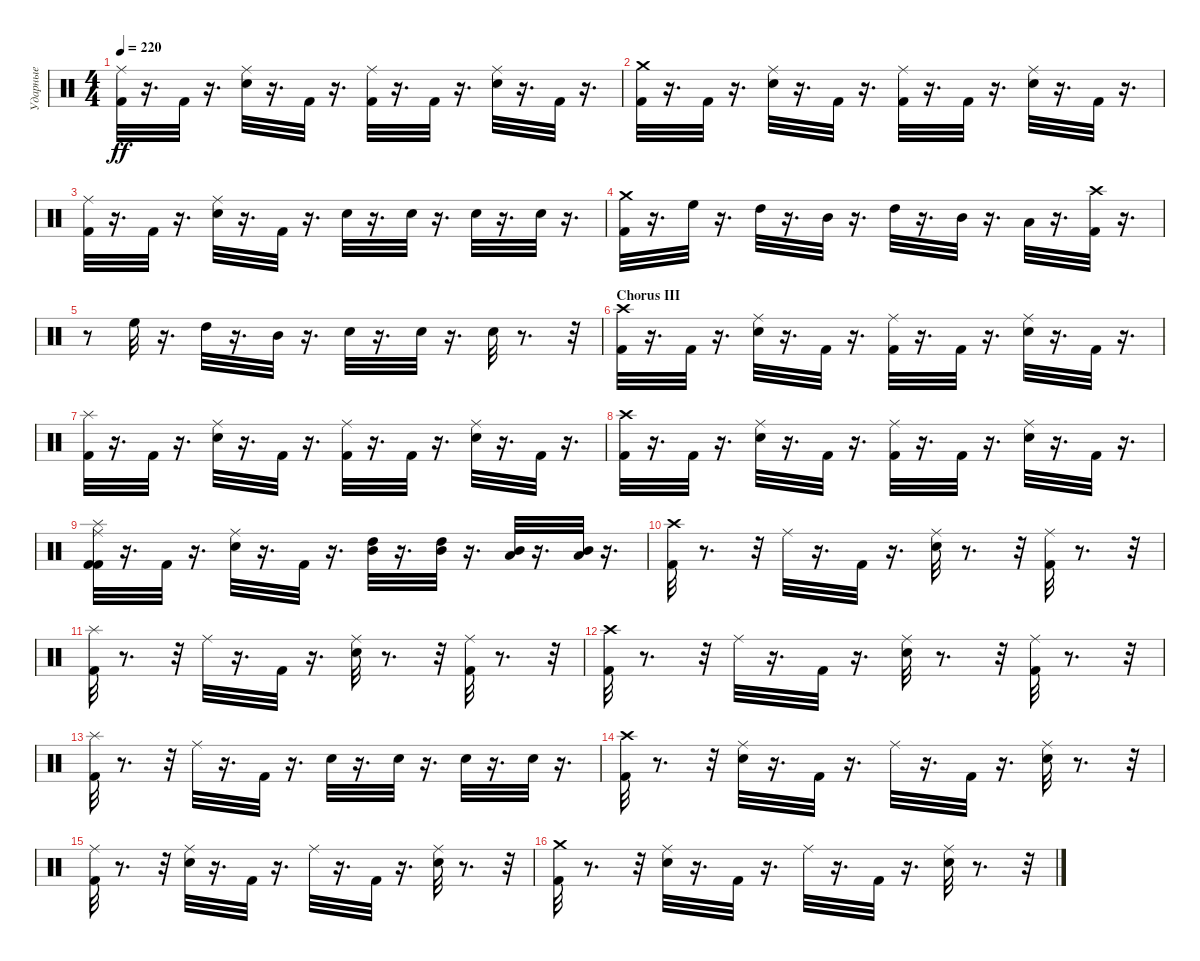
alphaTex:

\track ("Ударные" "Ударные") {instrument percussion}
\staff {score}
\articulation defaults
\ts (4 4)
\tempo 220
\clef neutral
\ks c
("Ride (middle)" "Kick (hit) 2").32{dy ff} r.16{d} "Kick (hit) 2".32 r.16{d} ("Ride (middle)" "Snare (hit) 2").32 r.16{d} "Kick (hit) 2".32 r.16{d} ("Ride (middle)" "Kick (hit) 2").32 r.16{d} "Kick (hit) 2".32 r.16{d} ("Ride (middle)" "Snare (hit) 2").32 r.16{d} "Kick (hit) 2".32 r.16{d} |
("Crash medium (hit)" "Kick (hit) 2").32 r.16{d} "Kick (hit) 2".32 r.16{d} ("Ride (middle)" "Snare (hit) 2").32 r.16{d} "Kick (hit) 2".32 r.16{d} ("Ride (middle)" "Kick (hit) 2").32 r.16{d} "Kick (hit) 2".32 r.16{d} ("Ride (middle)" "Snare (hit) 2").32 r.16{d} "Kick (hit) 2".32 r.16{d} |
("Ride (middle)" "Kick (hit) 2").32 r.16{d} "Kick (hit) 2".32 r.16{d} ("Ride (middle)" "Snare (hit) 2").32 r.16{d} "Kick (hit) 2".32 r.16{d} "Snare (hit) 2".32 r.16{d} "Snare (hit) 2".32 r.16{d} "Snare (hit) 2".32 r.16{d} "Snare (hit) 2".32 r.16{d} |
("Crash medium (hit)" "Kick (hit) 2").32 r.16{d} "High Floor Tom (hit)".32 r.16{d} "High Tom (hit)".32 r.16{d} "Mid Tom (hit)".32 r.16{d} "High Tom (hit)".32 r.16{d} "Mid Tom (hit)".32 r.16{d} "Low Tom (hit)".32 r.16{d} ("Kick (hit) 2" "Crash high (hit)").32 r.16{d} |
r.8 "High Floor Tom (hit)".32 r.16{d} "High Tom (hit)".32 r.16{d} "Mid Tom (hit)".32 r.16{d} "Snare (hit) 2".32 r.16{d} "Snare (hit) 2".32 r.16{d} "Snare (hit) 2".32 r.8{d} r.32 |
\section ("" "Chorus III")
("Crash high (hit)" "Kick (hit) 2").32 r.16{d} "Kick (hit) 2".32 r.16{d} ("Ride (middle)" "Snare (hit) 2").32 r.16{d} "Kick (hit) 2".32 r.16{d} ("Ride (middle)" "Kick (hit) 2").32 r.16{d} "Kick (hit) 2".32 r.16{d} ("Snare (hit) 2" "Ride (middle)").32 r.16{d} "Kick (hit) 2".32 r.16{d} |
("Kick (hit) 2" "Splash (hit)").32 r.16{d} "Kick (hit) 2".32 r.16{d} ("Snare (hit) 2" "Ride (middle)").32 r.16{d} "Kick (hit) 2".32 r.16{d} ("Kick (hit) 2" "Ride (middle)").32 r.16{d} "Kick (hit) 2".32 r.16{d} ("Snare (hit) 2" "Ride (middle)").32 r.16{d} "Kick (hit) 2".32 r.16{d} |
("Crash high (hit)" "Kick (hit) 2").32 r.16{d} "Kick (hit) 2".32 r.16{d} ("Ride (middle)" "Snare (hit) 2").32 r.16{d} "Kick (hit) 2".32 r.16{d} ("Ride (middle)" "Kick (hit) 2").32 r.16{d} "Kick (hit) 2".32 r.16{d} ("Snare (hit) 2" "Ride (middle)").32 r.16{d} "Kick (hit) 2".32 r.16{d} |
("Ride (middle)" "Kick (hit) 2" "Kick (hit) 2" "Splash (hit)").32 r.16{d} "Kick (hit) 2".32 r.16{d} ("Ride (middle)" "Snare (hit) 2").32 r.16{d} "Kick (hit) 2".32 r.16{d} ("Mid Tom (hit)" "High Tom (hit)").32 r.16{d} ("Mid Tom (hit)" "High Tom (hit)").32 r.16{d} ("Low Tom (hit)" "Mid Tom (hit)").32 r.16{d} ("Low Tom (hit)" "Mid Tom (hit)").32 r.16{d} |
("Kick (hit) 2" "Crash high (hit)").32 r.8{d} r.32 "Ride (middle)".32 r.16{d} "Kick (hit) 2".32 r.16{d} ("Snare (hit) 2" "Ride (middle)").32 r.8{d} r.32 ("Kick (hit) 2" "Ride (middle)").32 r.8{d} r.32 |
("Splash (hit)" "Kick (hit) 2").32 r.8{d} r.32 "Ride (middle)".32 r.16{d} "Kick (hit) 2".32 r.16{d} ("Ride (middle)" "Snare (hit) 2").32 r.8{d} r.32 ("Ride (middle)" "Kick (hit) 2").32 r.8{d} r.32 |
("Kick (hit) 2" "Crash high (hit)").32 r.8{d} r.32 "Ride (middle)".32 r.16{d} "Kick (hit) 2".32 r.16{d} ("Snare (hit) 2" "Ride (middle)").32 r.8{d} r.32 ("Kick (hit) 2" "Ride (middle)").32 r.8{d} r.32 |
("Splash (hit)" "Kick (hit) 2").32 r.8{d} r.32 "Ride (middle)".32 r.16{d} "Kick (hit) 2".32 r.16{d} "Snare (hit) 2".32 r.16{d} "Snare (hit) 2".32 r.16{d} "Snare (hit) 2".32 r.16{d} "Snare (hit) 2".32 r.16{d} |
("Crash high (hit)" "Kick (hit) 2").32 r.8{d} r.32 ("Ride (middle)" "Snare (hit) 2").32 r.16{d} "Kick (hit) 2".32 r.16{d} "Ride (middle)".32 r.16{d} "Kick (hit) 2".32 r.16{d} ("Ride (middle)" "Snare (hit) 2").32 r.8{d} r.32 |
("Kick (hit) 2" "Ride (middle)").32 r.8{d} r.32 ("Snare (hit) 2" "Ride (middle)").32 r.16{d} "Kick (hit) 2".32 r.16{d} "Ride (middle)".32 r.16{d} "Kick (hit) 2".32 r.16{d} ("Snare (hit) 2" "Ride (middle)").32 r.8{d} r.32 |
("Crash medium (hit)" "Kick (hit) 2").32 r.8{d} r.32 ("Ride (middle)" "Snare (hit) 2").32 r.16{d} "Kick (hit) 2".32 r.16{d} "Ride (middle)".32 r.16{d} "Kick (hit) 2".32 r.16{d} ("Ride (middle)" "Snare (hit) 2").32 r.8{d} r.32
